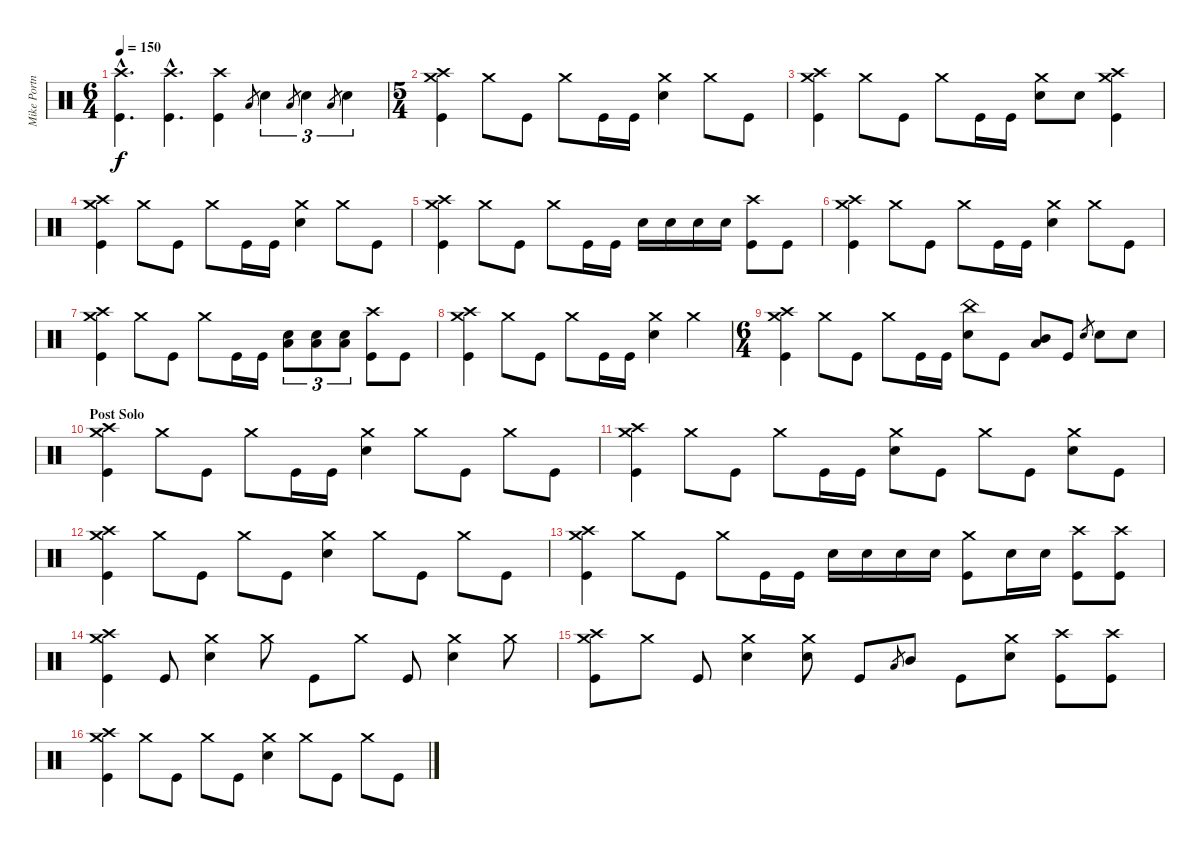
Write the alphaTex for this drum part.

\track ("Mike Portnoy" "Mike Portn") {instrument percussion}
\staff {score}
\articulation defaults
\ts (6 4)
\tempo 150
\clef neutral
\ks c
("Crash high (hit)"{hac} "Kick (hit)"{hac}).4{d dy f} ("Crash high (hit)"{hac} "Kick (hit)"{hac}).4{d} ("Crash high (hit)" "Kick (hit)").4 "Low Tom (hit)".8{gr} "Electric Snare (hit)".4{tu (3 2)} "Low Tom (hit)".8{gr} "Electric Snare (hit)".4{tu (3 2)} "Low Tom (hit)".8{gr} "Electric Snare (hit)".4{tu (3 2)} |
\ts (5 4)
("Crash high (hit)" "Crash medium (hit)" "Kick (hit)").4 "Crash medium (hit)".8 "Kick (hit)".8 "Crash medium (hit)".8 "Kick (hit)".16 "Kick (hit)".16 ("Crash medium (hit)" "Electric Snare (hit)").4 "Crash medium (hit)".8 "Kick (hit)".8 |
("Crash high (hit)" "Crash medium (hit)" "Kick (hit)").4 "Crash medium (hit)".8 "Kick (hit)".8 "Crash medium (hit)".8 "Kick (hit)".16 "Kick (hit)".16 ("Crash medium (hit)" "Electric Snare (hit)").8 "Electric Snare (hit)".8 ("Crash high (hit)" "Crash medium (hit)" "Kick (hit)").4 |
("Crash high (hit)" "Crash medium (hit)" "Kick (hit)").4 "Crash medium (hit)".8 "Kick (hit)".8 "Crash medium (hit)".8 "Kick (hit)".16 "Kick (hit)".16 ("Crash medium (hit)" "Electric Snare (hit)").4 "Crash medium (hit)".8 "Kick (hit)".8 |
("Crash high (hit)" "Crash medium (hit)" "Kick (hit)").4 "Crash medium (hit)".8 "Kick (hit)".8 "Crash medium (hit)".8 "Kick (hit)".16 "Kick (hit)".16 "Electric Snare (hit)".16 "Electric Snare (hit)".16 "Electric Snare (hit)".16 "Electric Snare (hit)".16 ("Crash high (hit)" "Kick (hit)").8 "Kick (hit)".8 |
("Crash high (hit)" "Crash medium (hit)" "Kick (hit)").4 "Crash medium (hit)".8 "Kick (hit)".8 "Crash medium (hit)".8 "Kick (hit)".16 "Kick (hit)".16 ("Crash medium (hit)" "Electric Snare (hit)").4 "Crash medium (hit)".8 "Kick (hit)".8 |
("Crash high (hit)" "Crash medium (hit)" "Kick (hit)").4 "Crash medium (hit)".8 "Kick (hit)".8 "Crash medium (hit)".8 "Kick (hit)".16 "Kick (hit)".16 ("Low Tom (hit)" "Electric Snare (hit)").8{tu (3 2)} ("Low Tom (hit)" "Electric Snare (hit)").8{tu (3 2)} ("Low Tom (hit)" "Electric Snare (hit)").8{tu (3 2)} ("Crash high (hit)" "Kick (hit)").8 "Kick (hit)".8 |
("Crash high (hit)" "Crash medium (hit)" "Kick (hit)").4 "Crash medium (hit)".8 "Kick (hit)".8 "Crash medium (hit)".8 "Kick (hit)".16 "Kick (hit)".16 ("Crash medium (hit)" "Electric Snare (hit)").4 "Crash medium (hit)".4 |
\ts (6 4)
("Crash high (hit)" "Crash medium (hit)" "Kick (hit)").4 "Crash medium (hit)".8 "Kick (hit)".8 "Crash medium (hit)".8 "Kick (hit)".16 "Kick (hit)".16 ("China (hit)" "Electric Snare (hit)").8 "Kick (hit)".8 ("Mid Tom (hit)" "Low Tom (hit)").8 "Kick (hit)".8 "Electric Snare (hit)".8{gr} "Electric Snare (hit)".8 "Electric Snare (hit)".8 |
\section ("" "Post Solo")
("Crash high (hit)" "Crash medium (hit)" "Kick (hit)").4 "Crash medium (hit)".8 "Kick (hit)".8 "Crash medium (hit)".8 "Kick (hit)".16 "Kick (hit)".16 ("Crash medium (hit)" "Electric Snare (hit)").4 "Crash medium (hit)".8 "Kick (hit)".8 "Crash medium (hit)".8 "Kick (hit)".8 |
("Crash high (hit)" "Crash medium (hit)" "Kick (hit)").4 "Crash medium (hit)".8 "Kick (hit)".8 "Crash medium (hit)".8 "Kick (hit)".16 "Kick (hit)".16 ("Crash medium (hit)" "Electric Snare (hit)").8 "Kick (hit)".8 "Crash medium (hit)".8 "Kick (hit)".8 ("Crash medium (hit)" "Electric Snare (hit)").8 "Kick (hit)".8 |
("Crash high (hit)" "Crash medium (hit)" "Kick (hit)").4 "Crash medium (hit)".8 "Kick (hit)".8 "Crash medium (hit)".8 "Kick (hit)".8 ("Crash medium (hit)" "Electric Snare (hit)").4 "Crash medium (hit)".8 "Kick (hit)".8 "Crash medium (hit)".8 "Kick (hit)".8 |
("Crash high (hit)" "Crash medium (hit)" "Kick (hit)").4 "Crash medium (hit)".8 "Kick (hit)".8 "Crash medium (hit)".8 "Kick (hit)".16 "Kick (hit)".16 "Electric Snare (hit)".16 "Electric Snare (hit)".16 "Electric Snare (hit)".16 "Electric Snare (hit)".16 ("Crash medium (hit)" "Kick (hit)").8 "Electric Snare (hit)".16 "Electric Snare (hit)".16 ("Crash high (hit)" "Kick (hit)").8 ("Crash high (hit)" "Kick (hit)").8 |
("Crash high (hit)" "Crash medium (hit)" "Kick (hit)").4 "Kick (hit)".8 ("Crash medium (hit)" "Electric Snare (hit)").4 "Crash medium (hit)".8 "Kick (hit)".8 "Crash medium (hit)".8 "Kick (hit)".8 ("Crash medium (hit)" "Electric Snare (hit)").4 "Crash medium (hit)".8 |
("Crash high (hit)" "Crash medium (hit)" "Kick (hit)").8 "Crash medium (hit)".8 "Kick (hit)".8 ("Crash medium (hit)" "Electric Snare (hit)").4 ("Crash medium (hit)" "Electric Snare (hit)").8 "Kick (hit)".8 "Low Tom (hit)".8{gr} "Mid Tom (hit)".8 "Kick (hit)".8 ("Crash medium (hit)" "Electric Snare (hit)").8 ("Crash high (hit)" "Kick (hit)").8 ("Crash high (hit)" "Kick (hit)").8 |
("Crash high (hit)" "Crash medium (hit)" "Kick (hit)").4 "Crash medium (hit)".8 "Kick (hit)".8 "Crash medium (hit)".8 "Kick (hit)".8 ("Crash medium (hit)" "Electric Snare (hit)").4 "Crash medium (hit)".8 "Kick (hit)".8 "Crash medium (hit)".8 "Kick (hit)".8
